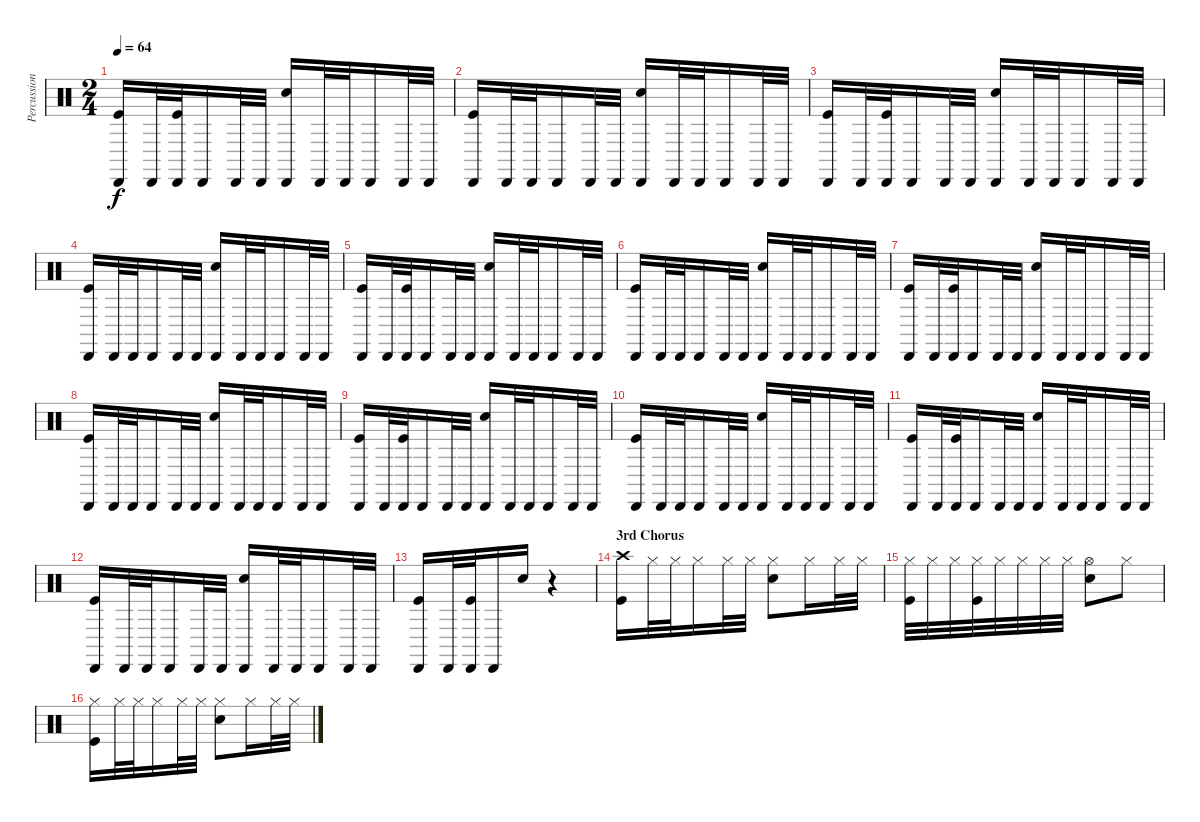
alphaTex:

\track ("Percussion" "Percussion") {instrument percussion}
\staff {score}
\articulation defaults
\ts (2 4)
\tempo 64
\clef neutral
\ks c
("Cabasa (hit)" "Kick (hit)").16{dy f} "Cabasa (hit)".32 ("Cabasa (hit)" "Kick (hit)").32 "Cabasa (hit)".16 "Cabasa (hit)".32 "Cabasa (hit)".32 ("Cabasa (hit)" "Electric Snare (hit)").16 "Cabasa (hit)".32 "Cabasa (hit)".32 "Cabasa (hit)".16 "Cabasa (hit)".32 "Cabasa (hit)".32 |
("Cabasa (hit)" "Kick (hit)").16 "Cabasa (hit)".32 "Cabasa (hit)".32 "Cabasa (hit)".16 "Cabasa (hit)".32 "Cabasa (hit)".32 ("Cabasa (hit)" "Electric Snare (hit)").16 "Cabasa (hit)".32 "Cabasa (hit)".32 "Cabasa (hit)".16 "Cabasa (hit)".32 "Cabasa (hit)".32 |
("Cabasa (hit)" "Kick (hit)").16 "Cabasa (hit)".32 ("Cabasa (hit)" "Kick (hit)").32 "Cabasa (hit)".16 "Cabasa (hit)".32 "Cabasa (hit)".32 ("Cabasa (hit)" "Electric Snare (hit)").16 "Cabasa (hit)".32 "Cabasa (hit)".32 "Cabasa (hit)".16 "Cabasa (hit)".32 "Cabasa (hit)".32 |
("Cabasa (hit)" "Kick (hit)").16 "Cabasa (hit)".32 "Cabasa (hit)".32 "Cabasa (hit)".16 "Cabasa (hit)".32 "Cabasa (hit)".32 ("Cabasa (hit)" "Electric Snare (hit)").16 "Cabasa (hit)".32 "Cabasa (hit)".32 "Cabasa (hit)".16 "Cabasa (hit)".32 "Cabasa (hit)".32 |
("Cabasa (hit)" "Kick (hit)").16 "Cabasa (hit)".32 ("Cabasa (hit)" "Kick (hit)").32 "Cabasa (hit)".16 "Cabasa (hit)".32 "Cabasa (hit)".32 ("Cabasa (hit)" "Electric Snare (hit)").16 "Cabasa (hit)".32 "Cabasa (hit)".32 "Cabasa (hit)".16 "Cabasa (hit)".32 "Cabasa (hit)".32 |
("Cabasa (hit)" "Kick (hit)").16 "Cabasa (hit)".32 "Cabasa (hit)".32 "Cabasa (hit)".16 "Cabasa (hit)".32 "Cabasa (hit)".32 ("Cabasa (hit)" "Electric Snare (hit)").16 "Cabasa (hit)".32 "Cabasa (hit)".32 "Cabasa (hit)".16 "Cabasa (hit)".32 "Cabasa (hit)".32 |
("Cabasa (hit)" "Kick (hit)").16 "Cabasa (hit)".32 ("Cabasa (hit)" "Kick (hit)").32 "Cabasa (hit)".16 "Cabasa (hit)".32 "Cabasa (hit)".32 ("Cabasa (hit)" "Electric Snare (hit)").16 "Cabasa (hit)".32 "Cabasa (hit)".32 "Cabasa (hit)".16 "Cabasa (hit)".32 "Cabasa (hit)".32 |
("Cabasa (hit)" "Kick (hit)").16 "Cabasa (hit)".32 "Cabasa (hit)".32 "Cabasa (hit)".16 "Cabasa (hit)".32 "Cabasa (hit)".32 ("Cabasa (hit)" "Electric Snare (hit)").16 "Cabasa (hit)".32 "Cabasa (hit)".32 "Cabasa (hit)".16 "Cabasa (hit)".32 "Cabasa (hit)".32 |
("Cabasa (hit)" "Kick (hit)").16 "Cabasa (hit)".32 ("Cabasa (hit)" "Kick (hit)").32 "Cabasa (hit)".16 "Cabasa (hit)".32 "Cabasa (hit)".32 ("Cabasa (hit)" "Electric Snare (hit)").16 "Cabasa (hit)".32 "Cabasa (hit)".32 "Cabasa (hit)".16 "Cabasa (hit)".32 "Cabasa (hit)".32 |
("Cabasa (hit)" "Kick (hit)").16 "Cabasa (hit)".32 "Cabasa (hit)".32 "Cabasa (hit)".16 "Cabasa (hit)".32 "Cabasa (hit)".32 ("Cabasa (hit)" "Electric Snare (hit)").16 "Cabasa (hit)".32 "Cabasa (hit)".32 "Cabasa (hit)".16 "Cabasa (hit)".32 "Cabasa (hit)".32 |
("Cabasa (hit)" "Kick (hit)").16 "Cabasa (hit)".32 ("Cabasa (hit)" "Kick (hit)").32 "Cabasa (hit)".16 "Cabasa (hit)".32 "Cabasa (hit)".32 ("Cabasa (hit)" "Electric Snare (hit)").16 "Cabasa (hit)".32 "Cabasa (hit)".32 "Cabasa (hit)".16 "Cabasa (hit)".32 "Cabasa (hit)".32 |
("Cabasa (hit)" "Kick (hit)").16 "Cabasa (hit)".32 "Cabasa (hit)".32 "Cabasa (hit)".16 "Cabasa (hit)".32 "Cabasa (hit)".32 ("Cabasa (hit)" "Electric Snare (hit)").16 "Cabasa (hit)".32 "Cabasa (hit)".32 "Cabasa (hit)".16 "Cabasa (hit)".32 "Cabasa (hit)".32 |
("Cabasa (hit)" "Kick (hit)").16 "Cabasa (hit)".32 ("Cabasa (hit)" "Kick (hit)").32 "Cabasa (hit)".16 "Electric Snare (hit)".16 r.4 |
\section ("" "3rd Chorus")
("Crash high (hit)" "Kick (hit)").16 "Hi-Hat (closed)".32 "Hi-Hat (closed)".32 "Hi-Hat (closed)".16 "Hi-Hat (closed)".32 "Hi-Hat (closed)".32 ("Hi-Hat (closed)" "Electric Snare (hit)").8 "Hi-Hat (closed)".16 "Hi-Hat (closed)".32 "Hi-Hat (closed)".32 |
("Hi-Hat (closed)" "Kick (hit)").32 "Hi-Hat (closed)".32 "Hi-Hat (closed)".32 ("Hi-Hat (closed)" "Kick (hit)").32 "Hi-Hat (closed)".32 "Hi-Hat (closed)".32 "Hi-Hat (closed)".32 "Hi-Hat (closed)".32 ("Hi-Hat (open)" "Electric Snare (hit)").8 "Hi-Hat (closed)".8 |
("Hi-Hat (closed)" "Kick (hit)").16 "Hi-Hat (closed)".32 "Hi-Hat (closed)".32 "Hi-Hat (closed)".16 "Hi-Hat (closed)".32 "Hi-Hat (closed)".32 ("Hi-Hat (closed)" "Electric Snare (hit)").8 "Hi-Hat (closed)".16 "Hi-Hat (closed)".32 "Hi-Hat (closed)".32
